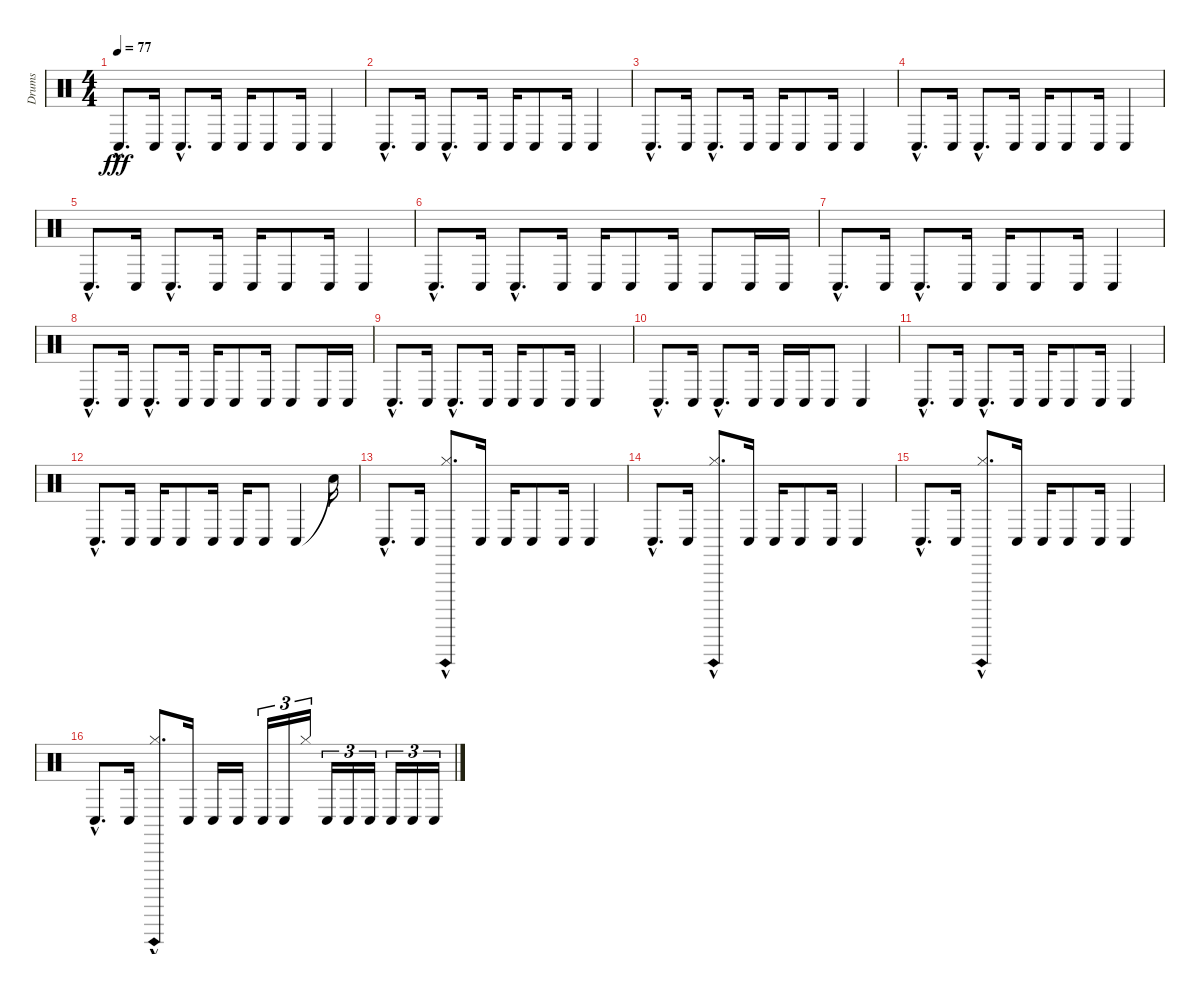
\track ("Drums" "Drums") {instrument percussion}
\staff {score}
\articulation defaults
\ts (4 4)
\tempo 77
\clef neutral
\ks c "Conga low (hit)"{hac}.8{d dy fff} "Conga low (hit)".16 "Conga low (hit)"{hac}.8{d} "Conga low (hit)".16 "Conga low (hit)".16 "Conga low (hit)".8 "Conga low (hit)".16 "Conga low (hit)".4
|
"Conga low (hit)"{hac}.8{d} "Conga low (hit)".16 "Conga low (hit)"{hac}.8{d} "Conga low (hit)".16 "Conga low (hit)".16 "Conga low (hit)".8 "Conga low (hit)".16 "Conga low (hit)".4 |
"Conga low (hit)"{hac}.8{d} "Conga low (hit)".16 "Conga low (hit)"{hac}.8{d} "Conga low (hit)".16 "Conga low (hit)".16 "Conga low (hit)".8 "Conga low (hit)".16 "Conga low (hit)".4 |
"Conga low (hit)"{hac}.8{d} "Conga low (hit)".16 "Conga low (hit)"{hac}.8{d} "Conga low (hit)".16 "Conga low (hit)".16 "Conga low (hit)".8 "Conga low (hit)".16 "Conga low (hit)".4 |
"Conga low (hit)"{hac}.8{d} "Conga low (hit)".16 "Conga low (hit)"{hac}.8{d} "Conga low (hit)".16 "Conga low (hit)".16 "Conga low (hit)".8 "Conga low (hit)".16 "Conga low (hit)".4 |
"Conga low (hit)"{hac}.8{d} "Conga low (hit)".16 "Conga low (hit)"{hac}.8{d} "Conga low (hit)".16 "Conga low (hit)".16 "Conga low (hit)".8 "Conga low (hit)".16 "Conga low (hit)".8 "Conga low (hit)".16 "Conga low (hit)".16 |
"Conga low (hit)"{hac}.8{d} "Conga low (hit)".16 "Conga low (hit)"{hac}.8{d} "Conga low (hit)".16 "Conga low (hit)".16 "Conga low (hit)".8 "Conga low (hit)".16 "Conga low (hit)".4 |
"Conga low (hit)"{hac}.8{d} "Conga low (hit)".16 "Conga low (hit)"{hac}.8{d} "Conga low (hit)".16 "Conga low (hit)".16 "Conga low (hit)".8 "Conga low (hit)".16 "Conga low (hit)".8 "Conga low (hit)".16 "Conga low (hit)".16 |
"Conga low (hit)"{hac}.8{d} "Conga low (hit)".16 "Conga low (hit)"{hac}.8{d} "Conga low (hit)".16 "Conga low (hit)".16 "Conga low (hit)".8 "Conga low (hit)".16 "Conga low (hit)".4 |
"Conga low (hit)"{hac}.8{d} "Conga low (hit)".16 "Conga low (hit)"{hac}.8{d} "Conga low (hit)".16 "Conga low (hit)".16 "Conga low (hit)".16 "Conga low (hit)".8 "Conga low (hit)".4 |
"Conga low (hit)"{hac}.8{d} "Conga low (hit)".16 "Conga low (hit)"{hac}.8{d} "Conga low (hit)".16 "Conga low (hit)".16 "Conga low (hit)".8 "Conga low (hit)".16 "Conga low (hit)".4 |
"Conga low (hit)"{hac}.8{d} "Conga low (hit)".16 "Conga low (hit)".16 "Conga low (hit)".8 "Conga low (hit)".16 "Conga low (hit)".16 "Conga low (hit)".8 "Conga low (hit)".4 "Snare (hit)"{t}.16 |
"Conga low (hit)"{hac}.8{d} "Conga low (hit)".16 "Hi-Hat (closed)"{ah 12 hac}.8{d} "Conga low (hit)".16 "Conga low (hit)".16 "Conga low (hit)".8 "Conga low (hit)".16 "Conga low (hit)".4 |
"Conga low (hit)"{hac}.8{d} "Conga low (hit)".16 "Hi-Hat (closed)"{ah 12 hac}.8{d} "Conga low (hit)".16 "Conga low (hit)".16 "Conga low (hit)".8 "Conga low (hit)".16 "Conga low (hit)".4 |
"Conga low (hit)"{hac}.8{d} "Conga low (hit)".16 "Hi-Hat (closed)"{ah 12 hac}.8{d} "Conga low (hit)".16 "Conga low (hit)".16 "Conga low (hit)".8 "Conga low (hit)".16 "Conga low (hit)".4 |
"Conga low (hit)"{hac}.8{d} "Conga low (hit)".16 "Hi-Hat (closed)"{ah 12 hac}.8{d} "Conga low (hit)".16 "Conga low (hit)".16 "Conga low (hit)".16 "Conga low (hit)".16{tu (3 2)} "Conga low (hit)".16{tu (3 2)} "Hi-Hat (closed)".16{tu (3 2)} "Conga low (hit)".16{tu (3 2)} "Conga low (hit)".16{tu (3 2)} "Conga low (hit)".16{tu (3 2)} "Conga low (hit)".16{tu (3 2)} "Conga low (hit)".16{tu (3 2)} "Conga low (hit)".16{tu (3 2)}
